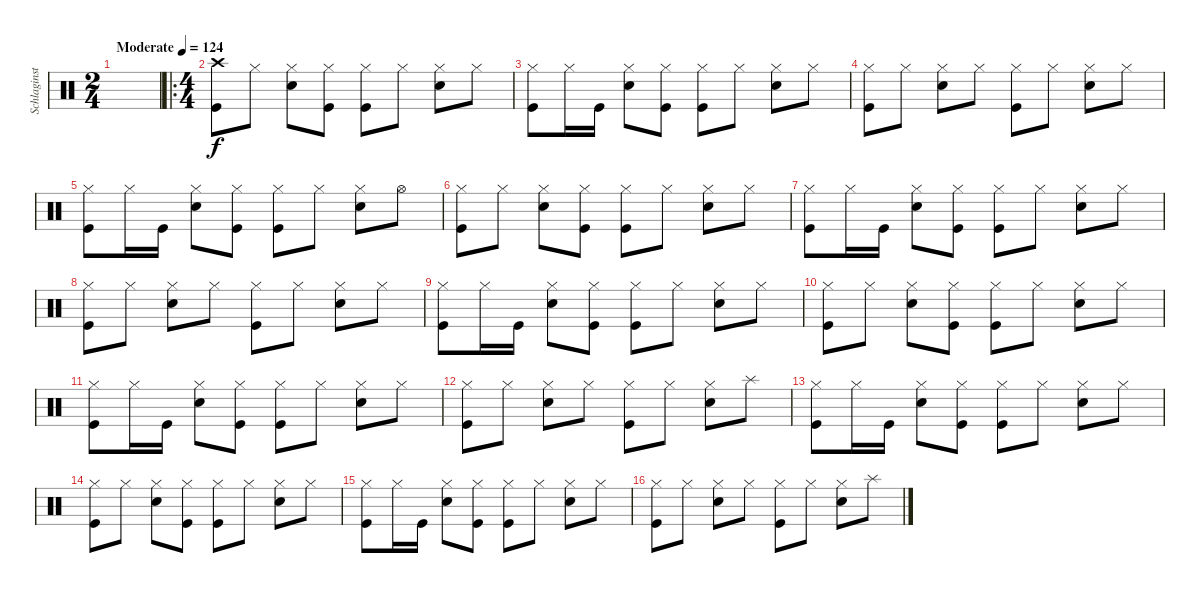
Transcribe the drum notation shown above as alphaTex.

\track ("Schlaginstrumente - Auswahl" "Schlaginst") {instrument percussion}
\staff {score}
\articulation defaults
\ts (2 4)
\tempo (124 "Moderate")
\clef neutral
\ks c
|
\ro
\ts (4 4)
("Crash high (hit)" "Kick (hit)").8 "Hi-Hat (closed)".8 ("Hi-Hat (closed)" "Snare (hit) 2").8 ("Hi-Hat (closed)" "Kick (hit)").8 ("Hi-Hat (closed)" "Kick (hit)").8 "Hi-Hat (closed)".8 ("Hi-Hat (closed)" "Snare (hit) 2").8 "Hi-Hat (closed)".8 |
("Hi-Hat (closed)" "Kick (hit)").8 "Hi-Hat (closed)".16 "Kick (hit)".16 ("Hi-Hat (closed)" "Snare (hit) 2").8 ("Hi-Hat (closed)" "Kick (hit)").8 ("Hi-Hat (closed)" "Kick (hit)").8 "Hi-Hat (closed)".8 ("Hi-Hat (closed)" "Snare (hit) 2").8 "Hi-Hat (closed)".8 |
("Hi-Hat (closed)" "Kick (hit)").8 "Hi-Hat (closed)".8 ("Hi-Hat (closed)" "Snare (hit) 2").8 "Hi-Hat (closed)".8 ("Hi-Hat (closed)" "Kick (hit)").8 "Hi-Hat (closed)".8 ("Hi-Hat (closed)" "Snare (hit) 2").8 "Hi-Hat (closed)".8 |
("Hi-Hat (closed)" "Kick (hit)").8 "Hi-Hat (closed)".16 "Kick (hit)".16 ("Hi-Hat (closed)" "Snare (hit) 2").8 ("Hi-Hat (closed)" "Kick (hit)").8 ("Hi-Hat (closed)" "Kick (hit)").8 "Hi-Hat (closed)".8 ("Hi-Hat (closed)" "Snare (hit) 2").8 "Hi-Hat (open)".8 |
("Hi-Hat (closed)" "Kick (hit)").8 "Hi-Hat (closed)".8 ("Hi-Hat (closed)" "Snare (hit) 2").8 ("Hi-Hat (closed)" "Kick (hit)").8 ("Hi-Hat (closed)" "Kick (hit)").8 "Hi-Hat (closed)".8 ("Hi-Hat (closed)" "Snare (hit) 2").8 "Hi-Hat (closed)".8 |
("Hi-Hat (closed)" "Kick (hit)").8 "Hi-Hat (closed)".16 "Kick (hit)".16 ("Hi-Hat (closed)" "Snare (hit) 2").8 ("Hi-Hat (closed)" "Kick (hit)").8 ("Hi-Hat (closed)" "Kick (hit)").8 "Hi-Hat (closed)".8 ("Hi-Hat (closed)" "Snare (hit) 2").8 "Hi-Hat (closed)".8 |
("Hi-Hat (closed)" "Kick (hit)").8 "Hi-Hat (closed)".8 ("Hi-Hat (closed)" "Snare (hit) 2").8 "Hi-Hat (closed)".8 ("Hi-Hat (closed)" "Kick (hit)").8 "Hi-Hat (closed)".8 ("Hi-Hat (closed)" "Snare (hit) 2").8 "Hi-Hat (closed)".8 |
("Hi-Hat (closed)" "Kick (hit)").8 "Hi-Hat (closed)".16 "Kick (hit)".16 ("Hi-Hat (closed)" "Snare (hit) 2").8 ("Hi-Hat (closed)" "Kick (hit)").8 ("Hi-Hat (closed)" "Kick (hit)").8 "Hi-Hat (closed)".8 ("Hi-Hat (closed)" "Snare (hit) 2").8 "Hi-Hat (closed)".8 |
("Hi-Hat (closed)" "Kick (hit)").8 "Hi-Hat (closed)".8 ("Hi-Hat (closed)" "Snare (hit) 2").8 ("Hi-Hat (closed)" "Kick (hit)").8 ("Hi-Hat (closed)" "Kick (hit)").8 "Hi-Hat (closed)".8 ("Hi-Hat (closed)" "Snare (hit) 2").8 "Hi-Hat (closed)".8 |
("Hi-Hat (closed)" "Kick (hit)").8 "Hi-Hat (closed)".16 "Kick (hit)".16 ("Hi-Hat (closed)" "Snare (hit) 2").8 ("Hi-Hat (closed)" "Kick (hit)").8 ("Hi-Hat (closed)" "Kick (hit)").8 "Hi-Hat (closed)".8 ("Hi-Hat (closed)" "Snare (hit) 2").8 "Hi-Hat (closed)".8 |
("Hi-Hat (closed)" "Kick (hit)").8 "Hi-Hat (closed)".8 ("Hi-Hat (closed)" "Snare (hit) 2").8 "Hi-Hat (closed)".8 ("Hi-Hat (closed)" "Kick (hit)").8 "Hi-Hat (closed)".8 ("Hi-Hat (closed)" "Snare (hit) 2").8 "Splash (hit)".8 |
("Hi-Hat (closed)" "Kick (hit)").8 "Hi-Hat (closed)".16 "Kick (hit)".16 ("Hi-Hat (closed)" "Snare (hit) 2").8 ("Hi-Hat (closed)" "Kick (hit)").8 ("Hi-Hat (closed)" "Kick (hit)").8 "Hi-Hat (closed)".8 ("Hi-Hat (closed)" "Snare (hit) 2").8 "Hi-Hat (closed)".8 |
("Hi-Hat (closed)" "Kick (hit)").8 "Hi-Hat (closed)".8 ("Hi-Hat (closed)" "Snare (hit) 2").8 ("Hi-Hat (closed)" "Kick (hit)").8 ("Hi-Hat (closed)" "Kick (hit)").8 "Hi-Hat (closed)".8 ("Hi-Hat (closed)" "Snare (hit) 2").8 "Hi-Hat (closed)".8 |
("Hi-Hat (closed)" "Kick (hit)").8 "Hi-Hat (closed)".16 "Kick (hit)".16 ("Hi-Hat (closed)" "Snare (hit) 2").8 ("Hi-Hat (closed)" "Kick (hit)").8 ("Hi-Hat (closed)" "Kick (hit)").8 "Hi-Hat (closed)".8 ("Hi-Hat (closed)" "Snare (hit) 2").8 "Hi-Hat (closed)".8 |
("Hi-Hat (closed)" "Kick (hit)").8 "Hi-Hat (closed)".8 ("Hi-Hat (closed)" "Snare (hit) 2").8 "Hi-Hat (closed)".8 ("Hi-Hat (closed)" "Kick (hit)").8 "Hi-Hat (closed)".8 ("Hi-Hat (closed)" "Snare (hit) 2").8 "Splash (hit)".8
